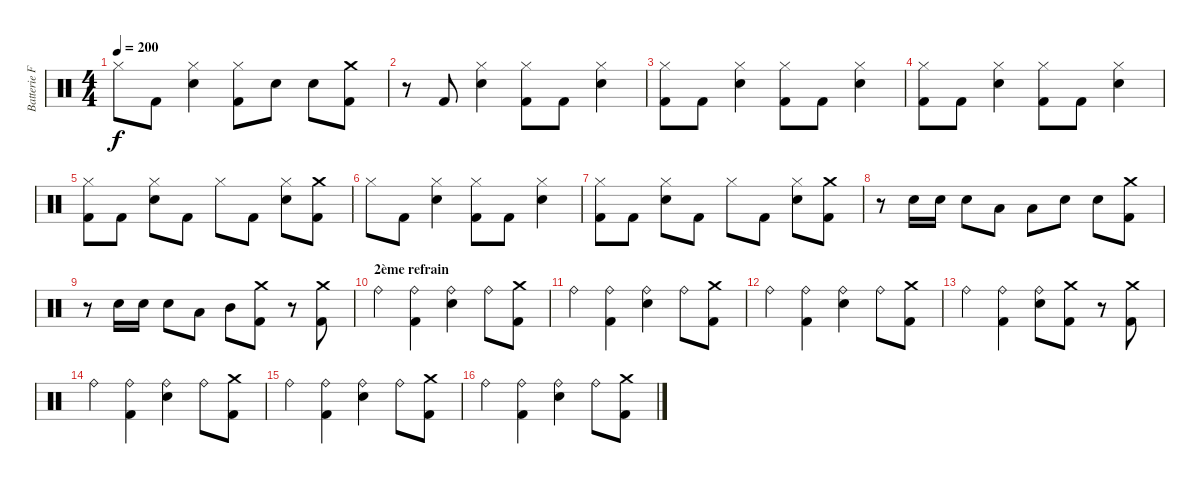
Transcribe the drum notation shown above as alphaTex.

\track ("Batterie Franck" "Batterie F") {instrument percussion}
\staff {score}
\articulation defaults
\ts (4 4)
\tempo 200
\clef neutral
\ks c "Hi-Hat (closed)".8{dy f} "Kick (hit) 2".8
("Hi-Hat (closed)" "Snare (hit) 2").4 ("Hi-Hat (closed)" "Kick (hit) 2").8 "Snare (hit) 2".8 "Snare (hit) 2".8 ("Crash medium (hit)" "Kick (hit) 2").8 |
r.8 "Kick (hit) 2".8 ("Hi-Hat (closed)" "Snare (hit) 2").4 ("Hi-Hat (closed)" "Kick (hit) 2").8 "Kick (hit) 2".8 ("Hi-Hat (closed)" "Snare (hit) 2").4 |
("Hi-Hat (closed)" "Kick (hit) 2").8 "Kick (hit) 2".8 ("Hi-Hat (closed)" "Snare (hit) 2").4 ("Hi-Hat (closed)" "Kick (hit) 2").8 "Kick (hit) 2".8 ("Hi-Hat (closed)" "Snare (hit) 2").4 |
("Hi-Hat (closed)" "Kick (hit) 2").8 "Kick (hit) 2".8 ("Hi-Hat (closed)" "Snare (hit) 2").4 ("Hi-Hat (closed)" "Kick (hit) 2").8 "Kick (hit) 2".8 ("Hi-Hat (closed)" "Snare (hit) 2").4 |
("Hi-Hat (closed)" "Kick (hit) 2").8 "Kick (hit) 2".8 ("Hi-Hat (closed)" "Snare (hit) 2").8 "Kick (hit) 2".8 "Hi-Hat (closed)".8 "Kick (hit) 2".8 ("Hi-Hat (closed)" "Snare (hit) 2").8 ("Crash medium (hit)" "Kick (hit) 2").8 |
"Hi-Hat (closed)".8 "Kick (hit) 2".8 ("Hi-Hat (closed)" "Snare (hit) 2").4 ("Hi-Hat (closed)" "Kick (hit) 2").8 "Kick (hit) 2".8 ("Hi-Hat (closed)" "Snare (hit) 2").4 |
("Hi-Hat (closed)" "Kick (hit) 2").8 "Kick (hit) 2".8 ("Hi-Hat (closed)" "Snare (hit) 2").8 "Kick (hit) 2".8 "Hi-Hat (closed)".8 "Kick (hit) 2".8 ("Hi-Hat (closed)" "Snare (hit) 2").8 ("Crash medium (hit)" "Kick (hit) 2").8 |
r.8 "Snare (hit) 2".16 "Snare (hit) 2".16 "Snare (hit) 2".8 "Low Tom (hit)".8 "Low Tom (hit)".8 "Snare (hit) 2".8 "Snare (hit) 2".8 ("Crash medium (hit)" "Kick (hit) 2").8 |
r.8 "Snare (hit) 2".16 "Snare (hit) 2".16 "Snare (hit) 2".8 "Low Floor Tom (hit)".8 "Mid Tom (hit)".8 ("Crash medium (hit)" "Kick (hit) 2").8 r.8 ("Crash medium (hit)" "Kick (hit) 2").8 |
\section ("" "2ème refrain")
"Ride (bell)".4 ("Ride (bell)" "Kick (hit) 2").4 ("Ride (bell)" "Snare (hit) 2").4 "Ride (bell)".8 ("Crash medium (hit)" "Kick (hit) 2").8 |
"Ride (bell)".4 ("Ride (bell)" "Kick (hit) 2").4 ("Ride (bell)" "Snare (hit) 2").4 "Ride (bell)".8 ("Crash medium (hit)" "Kick (hit) 2").8 |
"Ride (bell)".4 ("Ride (bell)" "Kick (hit) 2").4 ("Ride (bell)" "Snare (hit) 2").4 "Ride (bell)".8 ("Crash medium (hit)" "Kick (hit) 2").8 |
"Ride (bell)".4 ("Ride (bell)" "Kick (hit) 2").4 ("Ride (bell)" "Snare (hit) 2").8 ("Crash medium (hit)" "Kick (hit) 2").8 r.8 ("Crash medium (hit)" "Kick (hit) 2").8 |
"Ride (bell)".4 ("Ride (bell)" "Kick (hit) 2").4 ("Ride (bell)" "Snare (hit) 2").4 "Ride (bell)".8 ("Crash medium (hit)" "Kick (hit) 2").8 |
"Ride (bell)".4 ("Ride (bell)" "Kick (hit) 2").4 ("Ride (bell)" "Snare (hit) 2").4 "Ride (bell)".8 ("Crash medium (hit)" "Kick (hit) 2").8 |
"Ride (bell)".4 ("Ride (bell)" "Kick (hit) 2").4 ("Ride (bell)" "Snare (hit) 2").4 "Ride (bell)".8 ("Crash medium (hit)" "Kick (hit) 2").8
